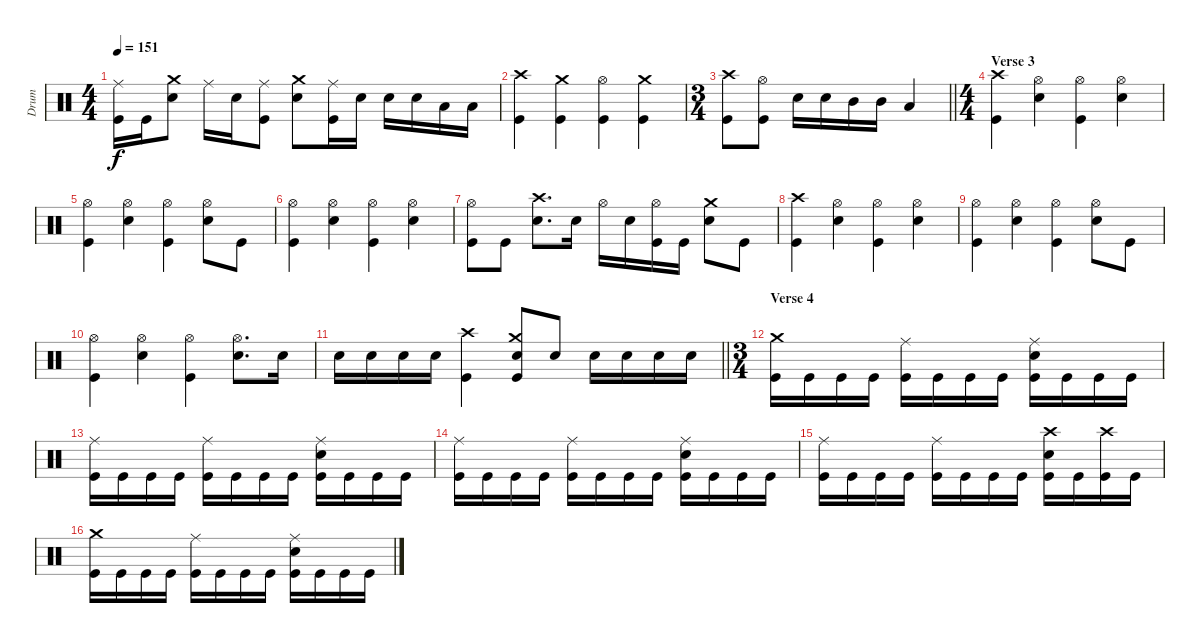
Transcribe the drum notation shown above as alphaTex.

\track ("Drum" "Drum") {instrument percussion}
\staff {score}
\articulation defaults
\ts (4 4)
\tempo 151
\clef neutral
\ks c
("Ride (middle)" "Kick (hit)").16{dy f} "Kick (hit)".16 ("Crash medium (hit)" "Snare (hit) 2").8 "Ride (middle)".16 "Snare (hit) 2".16 ("Ride (middle)" "Kick (hit)").8 ("Crash medium (hit)" "Snare (hit) 2").8 ("Ride (middle)" "Kick (hit)").16 "Snare (hit) 2".16 "Snare (hit) 2".16 "Snare (hit) 2".16 "Low Tom (hit)".16 "Low Tom (hit)".16 |
("Crash high (hit)" "Kick (hit)").4 ("Crash medium (hit)" "Kick (hit)").4 ("Hi-Hat (open)" "Kick (hit)").4 ("Crash medium (hit)" "Kick (hit)").4 |
\ts (3 4)
\barLineRight lightlight
("Crash high (hit)" "Kick (hit)").8 ("Hi-Hat (open)" "Kick (hit)").8 "Snare (hit) 2".16 "Snare (hit) 2".16 "Mid Tom (hit)".16 "Mid Tom (hit)".16 "Low Tom (hit)".4 |
\ts (4 4)
\section ("" "Verse 3")
("Crash high (hit)" "Kick (hit)").4 ("Hi-Hat (open)" "Snare (hit) 2").4 ("Hi-Hat (open)" "Kick (hit)").4 ("Hi-Hat (open)" "Snare (hit) 2").4 |
("Hi-Hat (open)" "Kick (hit)").4 ("Hi-Hat (open)" "Snare (hit) 2").4 ("Hi-Hat (open)" "Kick (hit)").4 ("Hi-Hat (open)" "Snare (hit) 2").8 "Kick (hit)".8 |
("Hi-Hat (open)" "Kick (hit)").4 ("Hi-Hat (open)" "Snare (hit) 2").4 ("Hi-Hat (open)" "Kick (hit)").4 ("Hi-Hat (open)" "Snare (hit) 2").4 |
("Hi-Hat (open)" "Kick (hit)").8 "Kick (hit)".8 ("Crash high (hit)" "Snare (hit) 2").8{d} "Snare (hit) 2".16 "Hi-Hat (open)".16 "Snare (hit) 2".16 ("Hi-Hat (open)" "Kick (hit)").16 "Kick (hit)".16 ("Crash medium (hit)" "Snare (hit) 2").8 "Kick (hit)".8 |
("Crash high (hit)" "Kick (hit)").4 ("Hi-Hat (open)" "Snare (hit) 2").4 ("Hi-Hat (open)" "Kick (hit)").4 ("Hi-Hat (open)" "Snare (hit) 2").4 |
("Hi-Hat (open)" "Kick (hit)").4 ("Hi-Hat (open)" "Snare (hit) 2").4 ("Hi-Hat (open)" "Kick (hit)").4 ("Hi-Hat (open)" "Snare (hit) 2").8 "Kick (hit)".8 |
("Hi-Hat (open)" "Kick (hit)").4 ("Hi-Hat (open)" "Snare (hit) 2").4 ("Hi-Hat (open)" "Kick (hit)").4 ("Hi-Hat (open)" "Snare (hit) 2").8{d} "Snare (hit) 2".16 |
\barLineRight lightlight "Snare (hit) 2".16 "Snare (hit) 2".16 "Snare (hit) 2".16 "Snare (hit) 2".16
("Crash high (hit)" "Kick (hit)").4 ("Crash medium (hit)" "Snare (hit) 2" "Kick (hit)").8 "Snare (hit) 2".8 "Snare (hit) 2".16 "Snare (hit) 2".16 "Snare (hit) 2".16 "Snare (hit) 2".16 |
\ts (3 4)
\section ("" "Verse 4")
("Crash medium (hit)" "Kick (hit)").16 "Kick (hit)".16 "Kick (hit)".16 "Kick (hit)".16 ("Ride (middle)" "Kick (hit)").16 "Kick (hit)".16 "Kick (hit)".16 "Kick (hit)".16 ("Ride (middle)" "Kick (hit)" "Snare (hit) 2").16 "Kick (hit)".16 "Kick (hit)".16 "Kick (hit)".16 |
("Ride (middle)" "Kick (hit)").16 "Kick (hit)".16 "Kick (hit)".16 "Kick (hit)".16 ("Ride (middle)" "Kick (hit)").16 "Kick (hit)".16 "Kick (hit)".16 "Kick (hit)".16 ("Ride (middle)" "Kick (hit)" "Snare (hit) 2").16 "Kick (hit)".16 "Kick (hit)".16 "Kick (hit)".16 |
("Ride (middle)" "Kick (hit)").16 "Kick (hit)".16 "Kick (hit)".16 "Kick (hit)".16 ("Ride (middle)" "Kick (hit)").16 "Kick (hit)".16 "Kick (hit)".16 "Kick (hit)".16 ("Ride (middle)" "Kick (hit)" "Snare (hit) 2").16 "Kick (hit)".16 "Kick (hit)".16 "Kick (hit)".16 |
("Ride (middle)" "Kick (hit)").16 "Kick (hit)".16 "Kick (hit)".16 "Kick (hit)".16 ("Ride (middle)" "Kick (hit)").16 "Kick (hit)".16 "Kick (hit)".16 "Kick (hit)".16 ("Crash high (hit)" "Kick (hit)" "Snare (hit) 2").16 "Kick (hit)".16 ("Crash high (hit)" "Kick (hit)").16 "Kick (hit)".16 |
("Crash medium (hit)" "Kick (hit)").16 "Kick (hit)".16 "Kick (hit)".16 "Kick (hit)".16 ("Ride (middle)" "Kick (hit)").16 "Kick (hit)".16 "Kick (hit)".16 "Kick (hit)".16 ("Ride (middle)" "Kick (hit)" "Snare (hit) 2").16 "Kick (hit)".16 "Kick (hit)".16 "Kick (hit)".16
